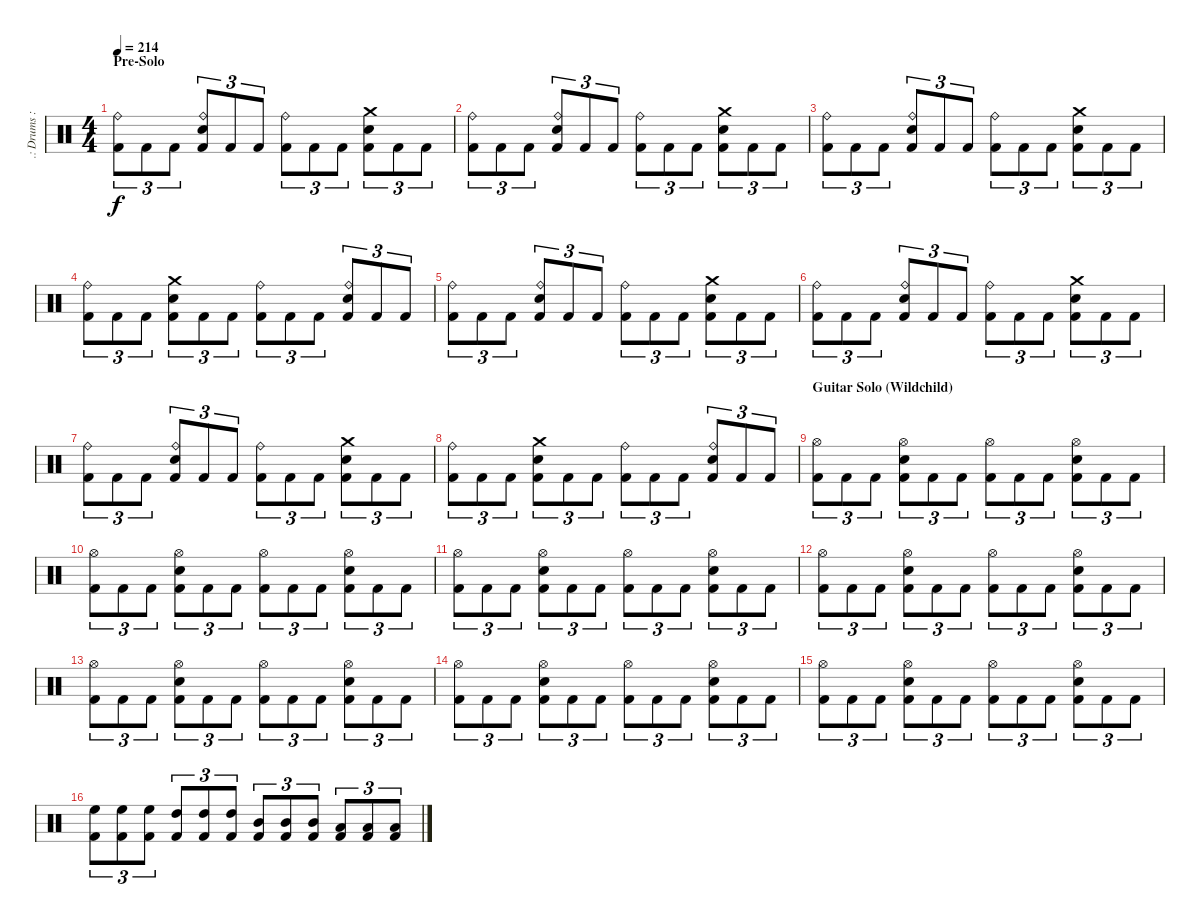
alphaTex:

\track (".: Drums :." ".: Drums :") {instrument percussion}
\staff {score}
\articulation defaults
\ts (4 4)
\section ("" "Pre-Solo")
\tempo 214
\clef neutral
\ks c
("Kick (hit) 2" "Ride (bell)").8{tu (3 2) dy f} "Kick (hit) 2".8{tu (3 2)} "Kick (hit) 2".8{tu (3 2)} ("Kick (hit) 2" "Ride (bell)" "Snare (hit) 2").8{tu (3 2)} "Kick (hit) 2".8{tu (3 2)} "Kick (hit) 2".8{tu (3 2)} ("Kick (hit) 2" "Ride (bell)").8{tu (3 2)} "Kick (hit) 2".8{tu (3 2)} "Kick (hit) 2".8{tu (3 2)} ("Kick (hit) 2" "Crash medium (hit)" "Snare (hit) 2").8{tu (3 2)} "Kick (hit) 2".8{tu (3 2)} "Kick (hit) 2".8{tu (3 2)} |
("Kick (hit) 2" "Ride (bell)").8{tu (3 2)} "Kick (hit) 2".8{tu (3 2)} "Kick (hit) 2".8{tu (3 2)} ("Kick (hit) 2" "Ride (bell)" "Snare (hit) 2").8{tu (3 2)} "Kick (hit) 2".8{tu (3 2)} "Kick (hit) 2".8{tu (3 2)} ("Kick (hit) 2" "Ride (bell)").8{tu (3 2)} "Kick (hit) 2".8{tu (3 2)} "Kick (hit) 2".8{tu (3 2)} ("Kick (hit) 2" "Crash medium (hit)" "Snare (hit) 2").8{tu (3 2)} "Kick (hit) 2".8{tu (3 2)} "Kick (hit) 2".8{tu (3 2)} |
("Kick (hit) 2" "Ride (bell)").8{tu (3 2)} "Kick (hit) 2".8{tu (3 2)} "Kick (hit) 2".8{tu (3 2)} ("Kick (hit) 2" "Ride (bell)" "Snare (hit) 2").8{tu (3 2)} "Kick (hit) 2".8{tu (3 2)} "Kick (hit) 2".8{tu (3 2)} ("Kick (hit) 2" "Ride (bell)").8{tu (3 2)} "Kick (hit) 2".8{tu (3 2)} "Kick (hit) 2".8{tu (3 2)} ("Kick (hit) 2" "Crash medium (hit)" "Snare (hit) 2").8{tu (3 2)} "Kick (hit) 2".8{tu (3 2)} "Kick (hit) 2".8{tu (3 2)} |
("Kick (hit) 2" "Ride (bell)").8{tu (3 2)} "Kick (hit) 2".8{tu (3 2)} "Kick (hit) 2".8{tu (3 2)} ("Kick (hit) 2" "Crash medium (hit)" "Snare (hit) 2").8{tu (3 2)} "Kick (hit) 2".8{tu (3 2)} "Kick (hit) 2".8{tu (3 2)} ("Kick (hit) 2" "Ride (bell)").8{tu (3 2)} "Kick (hit) 2".8{tu (3 2)} "Kick (hit) 2".8{tu (3 2)} ("Kick (hit) 2" "Ride (bell)" "Snare (hit) 2").8{tu (3 2)} "Kick (hit) 2".8{tu (3 2)} "Kick (hit) 2".8{tu (3 2)} |
("Kick (hit) 2" "Ride (bell)").8{tu (3 2)} "Kick (hit) 2".8{tu (3 2)} "Kick (hit) 2".8{tu (3 2)} ("Kick (hit) 2" "Ride (bell)" "Snare (hit) 2").8{tu (3 2)} "Kick (hit) 2".8{tu (3 2)} "Kick (hit) 2".8{tu (3 2)} ("Kick (hit) 2" "Ride (bell)").8{tu (3 2)} "Kick (hit) 2".8{tu (3 2)} "Kick (hit) 2".8{tu (3 2)} ("Kick (hit) 2" "Crash medium (hit)" "Snare (hit) 2").8{tu (3 2)} "Kick (hit) 2".8{tu (3 2)} "Kick (hit) 2".8{tu (3 2)} |
("Kick (hit) 2" "Ride (bell)").8{tu (3 2)} "Kick (hit) 2".8{tu (3 2)} "Kick (hit) 2".8{tu (3 2)} ("Kick (hit) 2" "Ride (bell)" "Snare (hit) 2").8{tu (3 2)} "Kick (hit) 2".8{tu (3 2)} "Kick (hit) 2".8{tu (3 2)} ("Kick (hit) 2" "Ride (bell)").8{tu (3 2)} "Kick (hit) 2".8{tu (3 2)} "Kick (hit) 2".8{tu (3 2)} ("Kick (hit) 2" "Crash medium (hit)" "Snare (hit) 2").8{tu (3 2)} "Kick (hit) 2".8{tu (3 2)} "Kick (hit) 2".8{tu (3 2)} |
("Kick (hit) 2" "Ride (bell)").8{tu (3 2)} "Kick (hit) 2".8{tu (3 2)} "Kick (hit) 2".8{tu (3 2)} ("Kick (hit) 2" "Ride (bell)" "Snare (hit) 2").8{tu (3 2)} "Kick (hit) 2".8{tu (3 2)} "Kick (hit) 2".8{tu (3 2)} ("Kick (hit) 2" "Ride (bell)").8{tu (3 2)} "Kick (hit) 2".8{tu (3 2)} "Kick (hit) 2".8{tu (3 2)} ("Kick (hit) 2" "Crash medium (hit)" "Snare (hit) 2").8{tu (3 2)} "Kick (hit) 2".8{tu (3 2)} "Kick (hit) 2".8{tu (3 2)} |
("Kick (hit) 2" "Ride (bell)").8{tu (3 2)} "Kick (hit) 2".8{tu (3 2)} "Kick (hit) 2".8{tu (3 2)} ("Kick (hit) 2" "Crash medium (hit)" "Snare (hit) 2").8{tu (3 2)} "Kick (hit) 2".8{tu (3 2)} "Kick (hit) 2".8{tu (3 2)} ("Kick (hit) 2" "Ride (bell)").8{tu (3 2)} "Kick (hit) 2".8{tu (3 2)} "Kick (hit) 2".8{tu (3 2)} ("Kick (hit) 2" "Ride (bell)" "Snare (hit) 2").8{tu (3 2)} "Kick (hit) 2".8{tu (3 2)} "Kick (hit) 2".8{tu (3 2)} |
\section ("" "Guitar Solo (Wildchild)")
("Kick (hit) 2" "Hi-Hat (open)").8{tu (3 2)} "Kick (hit) 2".8{tu (3 2)} "Kick (hit) 2".8{tu (3 2)} ("Kick (hit) 2" "Hi-Hat (open)" "Snare (hit) 2").8{tu (3 2)} "Kick (hit) 2".8{tu (3 2)} "Kick (hit) 2".8{tu (3 2)} ("Kick (hit) 2" "Hi-Hat (open)").8{tu (3 2)} "Kick (hit) 2".8{tu (3 2)} "Kick (hit) 2".8{tu (3 2)} ("Kick (hit) 2" "Hi-Hat (open)" "Snare (hit) 2").8{tu (3 2)} "Kick (hit) 2".8{tu (3 2)} "Kick (hit) 2".8{tu (3 2)} |
("Kick (hit) 2" "Hi-Hat (open)").8{tu (3 2)} "Kick (hit) 2".8{tu (3 2)} "Kick (hit) 2".8{tu (3 2)} ("Kick (hit) 2" "Hi-Hat (open)" "Snare (hit) 2").8{tu (3 2)} "Kick (hit) 2".8{tu (3 2)} "Kick (hit) 2".8{tu (3 2)} ("Kick (hit) 2" "Hi-Hat (open)").8{tu (3 2)} "Kick (hit) 2".8{tu (3 2)} "Kick (hit) 2".8{tu (3 2)} ("Kick (hit) 2" "Hi-Hat (open)" "Snare (hit) 2").8{tu (3 2)} "Kick (hit) 2".8{tu (3 2)} "Kick (hit) 2".8{tu (3 2)} |
("Kick (hit) 2" "Hi-Hat (open)").8{tu (3 2)} "Kick (hit) 2".8{tu (3 2)} "Kick (hit) 2".8{tu (3 2)} ("Kick (hit) 2" "Hi-Hat (open)" "Snare (hit) 2").8{tu (3 2)} "Kick (hit) 2".8{tu (3 2)} "Kick (hit) 2".8{tu (3 2)} ("Kick (hit) 2" "Hi-Hat (open)").8{tu (3 2)} "Kick (hit) 2".8{tu (3 2)} "Kick (hit) 2".8{tu (3 2)} ("Kick (hit) 2" "Hi-Hat (open)" "Snare (hit) 2").8{tu (3 2)} "Kick (hit) 2".8{tu (3 2)} "Kick (hit) 2".8{tu (3 2)} |
("Kick (hit) 2" "Hi-Hat (open)").8{tu (3 2)} "Kick (hit) 2".8{tu (3 2)} "Kick (hit) 2".8{tu (3 2)} ("Kick (hit) 2" "Hi-Hat (open)" "Snare (hit) 2").8{tu (3 2)} "Kick (hit) 2".8{tu (3 2)} "Kick (hit) 2".8{tu (3 2)} ("Kick (hit) 2" "Hi-Hat (open)").8{tu (3 2)} "Kick (hit) 2".8{tu (3 2)} "Kick (hit) 2".8{tu (3 2)} ("Kick (hit) 2" "Hi-Hat (open)" "Snare (hit) 2").8{tu (3 2)} "Kick (hit) 2".8{tu (3 2)} "Kick (hit) 2".8{tu (3 2)} |
("Kick (hit) 2" "Hi-Hat (open)").8{tu (3 2)} "Kick (hit) 2".8{tu (3 2)} "Kick (hit) 2".8{tu (3 2)} ("Kick (hit) 2" "Hi-Hat (open)" "Snare (hit) 2").8{tu (3 2)} "Kick (hit) 2".8{tu (3 2)} "Kick (hit) 2".8{tu (3 2)} ("Kick (hit) 2" "Hi-Hat (open)").8{tu (3 2)} "Kick (hit) 2".8{tu (3 2)} "Kick (hit) 2".8{tu (3 2)} ("Kick (hit) 2" "Hi-Hat (open)" "Snare (hit) 2").8{tu (3 2)} "Kick (hit) 2".8{tu (3 2)} "Kick (hit) 2".8{tu (3 2)} |
("Kick (hit) 2" "Hi-Hat (open)").8{tu (3 2)} "Kick (hit) 2".8{tu (3 2)} "Kick (hit) 2".8{tu (3 2)} ("Kick (hit) 2" "Hi-Hat (open)" "Snare (hit) 2").8{tu (3 2)} "Kick (hit) 2".8{tu (3 2)} "Kick (hit) 2".8{tu (3 2)} ("Kick (hit) 2" "Hi-Hat (open)").8{tu (3 2)} "Kick (hit) 2".8{tu (3 2)} "Kick (hit) 2".8{tu (3 2)} ("Kick (hit) 2" "Hi-Hat (open)" "Snare (hit) 2").8{tu (3 2)} "Kick (hit) 2".8{tu (3 2)} "Kick (hit) 2".8{tu (3 2)} |
("Kick (hit) 2" "Hi-Hat (open)").8{tu (3 2)} "Kick (hit) 2".8{tu (3 2)} "Kick (hit) 2".8{tu (3 2)} ("Kick (hit) 2" "Hi-Hat (open)" "Snare (hit) 2").8{tu (3 2)} "Kick (hit) 2".8{tu (3 2)} "Kick (hit) 2".8{tu (3 2)} ("Kick (hit) 2" "Hi-Hat (open)").8{tu (3 2)} "Kick (hit) 2".8{tu (3 2)} "Kick (hit) 2".8{tu (3 2)} ("Kick (hit) 2" "Hi-Hat (open)" "Snare (hit) 2").8{tu (3 2)} "Kick (hit) 2".8{tu (3 2)} "Kick (hit) 2".8{tu (3 2)} |
("Kick (hit) 2" "High Floor Tom (hit)").8{tu (3 2)} ("Kick (hit) 2" "High Floor Tom (hit)").8{tu (3 2)} ("Kick (hit) 2" "High Floor Tom (hit)").8{tu (3 2)} ("Kick (hit) 2" "High Tom (hit)").8{tu (3 2)} ("Kick (hit) 2" "High Tom (hit)").8{tu (3 2)} ("Kick (hit) 2" "High Tom (hit)").8{tu (3 2)} ("Kick (hit) 2" "Mid Tom (hit)").8{tu (3 2)} ("Kick (hit) 2" "Mid Tom (hit)").8{tu (3 2)} ("Kick (hit) 2" "Mid Tom (hit)").8{tu (3 2)} ("Kick (hit) 2" "Low Tom (hit)").8{tu (3 2)} ("Kick (hit) 2" "Low Tom (hit)").8{tu (3 2)} ("Kick (hit) 2" "Low Tom (hit)").8{tu (3 2)}
